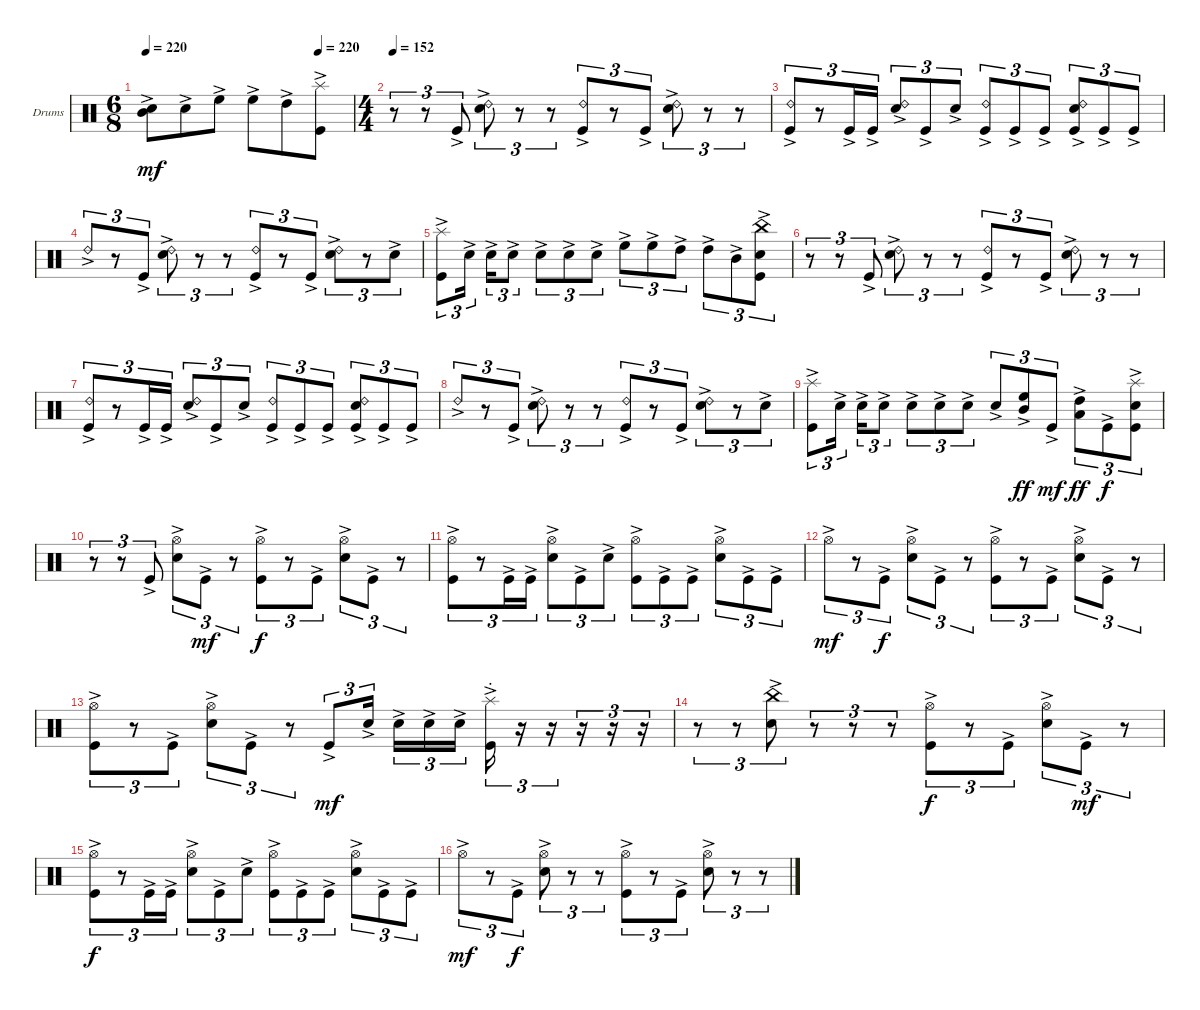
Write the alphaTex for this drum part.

\bracketExtendMode groupsimilarinstruments
\firstSystemTrackNameOrientation horizontal
\otherSystemsTrackNameOrientation horizontal
\track ("Drumkit" "Drums") {solo instrument percussion}
\staff {score}
\articulation defaults
\ts (6 8)
\tempo 220
\tempo (220 0.833333)
\clef neutral
\ks c
("Snare (hit) 2"{ac} "Mid Tom (hit)"{t}).8{dy mf} "Snare (hit) 2"{ac}.8 "High Floor Tom (hit)"{ac}.8 "High Floor Tom (hit)"{ac}.8 "High Tom (hit)"{ac}.8 ("Kick (hit)"{ac} "Splash (hit)"{ac}).8 |
\ts (4 4)
\tempo 152
r.8{tu (3 2)} r.8{tu (3 2)} "Kick (hit)"{ac}.8{tu (3 2)} ("Snare (hit) 2"{ac} "Ride (bell) 2"{ac}).8{tu (3 2)} r.8{tu (3 2)} r.8{tu (3 2)} ("Kick (hit)"{ac} "Ride (bell) 2"{ac}).8{tu (3 2)} r.8{tu (3 2)} "Kick (hit)"{ac}.8{tu (3 2)} ("Snare (hit) 2"{ac} "Ride (bell) 2"{ac}).8{tu (3 2)} r.8{tu (3 2)} r.8{tu (3 2)} |
("Kick (hit)"{ac} "Ride (bell) 2"{ac}).8{tu (3 2)} r.8{tu (3 2)} "Kick (hit)"{ac}.16{tu (3 2)} "Kick (hit)"{ac}.16{tu (3 2)} ("Snare (hit) 2"{ac} "Ride (bell) 2"{ac}).8{tu (3 2)} "Kick (hit)"{ac}.8{tu (3 2)} "Snare (hit) 2"{ac}.8{tu (3 2)} ("Kick (hit)"{ac} "Ride (bell) 2"{ac}).8{tu (3 2)} "Kick (hit)"{ac}.8{tu (3 2)} "Kick (hit)"{ac}.8{tu (3 2)} ("Kick (hit)"{ac} "Snare (hit) 2"{ac} "Ride (bell) 2"{ac}).8{tu (3 2)} "Kick (hit)"{ac}.8{tu (3 2)} "Kick (hit)"{ac}.8{tu (3 2)} |
"Ride (bell) 2"{ac}.8{tu (3 2)} r.8{tu (3 2)} "Kick (hit)"{ac}.8{tu (3 2)} ("Snare (hit) 2"{ac} "Ride (bell) 2"{ac}).8{tu (3 2)} r.8{tu (3 2)} r.8{tu (3 2)} ("Kick (hit)"{ac} "Ride (bell) 2"{ac}).8{tu (3 2)} r.8{tu (3 2)} "Kick (hit)"{ac}.8{tu (3 2)} ("Snare (hit) 2"{ac} "Ride (bell) 2"{ac}).8{tu (3 2)} r.8{tu (3 2)} "Snare (hit) 2"{ac}.8{tu (3 2)} |
("Kick (hit)"{ac} "Splash (hit)"{ac}).8{tu (3 2)} "Snare (hit) 2"{ac}.16{tu (3 2)} "Snare (hit) 2"{ac}.16{tu (3 2)} "Snare (hit) 2"{ac}.8{tu (3 2)} "Snare (hit) 2"{ac}.8{tu (3 2)} "Snare (hit) 2"{ac}.8{tu (3 2)} "Snare (hit) 2"{ac}.8{tu (3 2)} "High Floor Tom (hit)"{ac}.8{tu (3 2)} "High Floor Tom (hit)"{ac}.8{tu (3 2)} "High Tom (hit)"{ac}.8{tu (3 2)} "High Tom (hit)"{ac}.8{tu (3 2)} "Mid Tom (hit)"{ac}.8{tu (3 2)} ("Kick (hit)"{ac} "China (hit)"{ac} "Snare (hit) 2"{ac}).8{tu (3 2)} |
r.8{tu (3 2)} r.8{tu (3 2)} "Kick (hit)"{ac}.8{tu (3 2)} ("Snare (hit) 2"{ac} "Ride (bell) 2"{ac}).8{tu (3 2)} r.8{tu (3 2)} r.8{tu (3 2)} ("Kick (hit)"{ac} "Ride (bell) 2"{ac}).8{tu (3 2)} r.8{tu (3 2)} "Kick (hit)"{ac}.8{tu (3 2)} ("Snare (hit) 2"{ac} "Ride (bell) 2"{ac}).8{tu (3 2)} r.8{tu (3 2)} r.8{tu (3 2)} |
("Kick (hit)"{ac} "Ride (bell) 2"{ac}).8{tu (3 2)} r.8{tu (3 2)} "Kick (hit)"{ac}.16{tu (3 2)} "Kick (hit)"{ac}.16{tu (3 2)} ("Snare (hit) 2"{ac} "Ride (bell) 2"{ac}).8{tu (3 2)} "Kick (hit)"{ac}.8{tu (3 2)} "Snare (hit) 2"{ac}.8{tu (3 2)} ("Kick (hit)"{ac} "Ride (bell) 2"{ac}).8{tu (3 2)} "Kick (hit)"{ac}.8{tu (3 2)} "Kick (hit)"{ac}.8{tu (3 2)} ("Kick (hit)"{ac} "Snare (hit) 2"{ac} "Ride (bell) 2"{ac}).8{tu (3 2)} "Kick (hit)"{ac}.8{tu (3 2)} "Kick (hit)"{ac}.8{tu (3 2)} |
"Ride (bell) 2"{ac}.8{tu (3 2)} r.8{tu (3 2)} "Kick (hit)"{ac}.8{tu (3 2)} ("Snare (hit) 2"{ac} "Ride (bell) 2"{ac}).8{tu (3 2)} r.8{tu (3 2)} r.8{tu (3 2)} ("Kick (hit)"{ac} "Ride (bell) 2"{ac}).8{tu (3 2)} r.8{tu (3 2)} "Kick (hit)"{ac}.8{tu (3 2)} ("Snare (hit) 2"{ac} "Ride (bell) 2"{ac}).8{tu (3 2)} r.8{tu (3 2)} "Snare (hit) 2"{ac}.8{tu (3 2)} |
("Kick (hit)"{ac} "Splash (hit)"{ac}).8{tu (3 2)} "Snare (hit) 2"{ac}.16{tu (3 2)} "Snare (hit) 2"{ac}.16{tu (3 2)} "Snare (hit) 2"{ac}.8{tu (3 2)} "Snare (hit) 2"{ac}.8{tu (3 2)} "Snare (hit) 2"{ac}.8{tu (3 2)} "Snare (hit) 2"{ac}.8{tu (3 2)} "Snare (hit) 2"{ac}.8{tu (3 2)} ("Mid Tom (hit)"{ac} "High Floor Tom (hit)"{ac}).8{tu (3 2) dy ff} "Kick (hit)"{ac}.8{tu (3 2) dy mf} ("Low Tom (hit)"{ac} "High Tom (hit)"{ac}).8{tu (3 2) dy ff} "Kick (hit)"{ac}.8{tu (3 2) dy f} ("Kick (hit)"{ac} "Splash (hit)"{ac} "Snare (hit) 2"{ac}).8{tu (3 2)} |
r.8{tu (3 2)} r.8{tu (3 2)} "Kick (hit)"{ac}.8{tu (3 2)} ("Snare (hit) 2"{ac} "Hi-Hat (open)"{ac}).8{tu (3 2)} "Kick (hit)"{ac}.8{tu (3 2) dy mf} r.8{tu (3 2)} ("Kick (hit)"{ac} "Hi-Hat (open)"{ac}).8{tu (3 2) dy f} r.8{tu (3 2)} "Kick (hit)"{ac}.8{tu (3 2)} ("Snare (hit) 2"{ac} "Hi-Hat (open)"{ac}).8{tu (3 2)} "Kick (hit)"{ac}.8{tu (3 2)} r.8{tu (3 2)} |
("Kick (hit)"{ac} "Hi-Hat (open)"{ac}).8{tu (3 2)} r.8{tu (3 2)} "Kick (hit)"{ac}.16{tu (3 2)} "Kick (hit)"{ac}.16{tu (3 2)} ("Snare (hit) 2"{ac} "Hi-Hat (open)"{ac}).8{tu (3 2)} "Kick (hit)"{ac}.8{tu (3 2)} "Snare (hit) 2"{ac}.8{tu (3 2)} ("Kick (hit)"{ac} "Hi-Hat (open)"{ac}).8{tu (3 2)} "Kick (hit)"{ac}.8{tu (3 2)} "Kick (hit)"{ac}.8{tu (3 2)} ("Snare (hit) 2"{ac} "Hi-Hat (open)"{ac}).8{tu (3 2)} "Kick (hit)"{ac}.8{tu (3 2)} "Kick (hit)"{ac}.8{tu (3 2)} |
"Hi-Hat (open)"{ac}.8{tu (3 2) dy mf} r.8{tu (3 2)} "Kick (hit)"{ac}.8{tu (3 2) dy f} ("Snare (hit) 2"{ac} "Hi-Hat (open)"{ac}).8{tu (3 2)} "Kick (hit)"{ac}.8{tu (3 2)} r.8{tu (3 2)} ("Kick (hit)"{ac} "Hi-Hat (open)"{ac}).8{tu (3 2)} r.8{tu (3 2)} "Kick (hit)"{ac}.8{tu (3 2)} ("Snare (hit) 2"{ac} "Hi-Hat (open)"{ac}).8{tu (3 2)} "Kick (hit)"{ac}.8{tu (3 2)} r.8{tu (3 2)} |
("Kick (hit)"{ac} "Hi-Hat (open)"{ac}).8{tu (3 2)} r.8{tu (3 2)} "Kick (hit)"{ac}.8{tu (3 2)} ("Snare (hit) 2"{ac} "Hi-Hat (open)"{ac}).8{tu (3 2)} "Kick (hit)"{ac}.8{tu (3 2)} r.8{tu (3 2)} "Kick (hit)"{ac}.8{tu (3 2) dy mf} "Snare (hit) 2"{ac}.16{tu (3 2)} "Snare (hit) 2"{ac}.16{tu (3 2)} "Snare (hit) 2"{ac}.16{tu (3 2)} "Snare (hit) 2"{ac}.16{tu (3 2)} ("Kick (hit)"{ac} "Splash (hit)"{ac st}).16{tu (3 2)} r.16{tu (3 2)} r.16{tu (3 2)} r.16{tu (3 2)} r.16{tu (3 2)} r.16{tu (3 2)} |
r.8{tu (3 2)} r.8{tu (3 2)} ("Snare (hit) 2"{ac} "China (hit)"{ac}).8{tu (3 2)} r.8{tu (3 2)} r.8{tu (3 2)} r.8{tu (3 2)} ("Kick (hit)"{ac} "Hi-Hat (open)"{ac}).8{tu (3 2) dy f} r.8{tu (3 2)} "Kick (hit)"{ac}.8{tu (3 2)} ("Snare (hit) 2"{ac} "Hi-Hat (open)"{ac}).8{tu (3 2)} "Kick (hit)"{ac}.8{tu (3 2) dy mf} r.8{tu (3 2)} |
("Kick (hit)"{ac} "Hi-Hat (open)"{ac}).8{tu (3 2) dy f} r.8{tu (3 2)} "Kick (hit)"{ac}.16{tu (3 2)} "Kick (hit)"{ac}.16{tu (3 2)} ("Snare (hit) 2"{ac} "Hi-Hat (open)"{ac}).8{tu (3 2)} "Kick (hit)"{ac}.8{tu (3 2)} "Snare (hit) 2"{ac}.8{tu (3 2)} ("Kick (hit)"{ac} "Hi-Hat (open)"{ac}).8{tu (3 2)} "Kick (hit)"{ac}.8{tu (3 2)} "Kick (hit)"{ac}.8{tu (3 2)} ("Snare (hit) 2"{ac} "Hi-Hat (open)"{ac}).8{tu (3 2)} "Kick (hit)"{ac}.8{tu (3 2)} "Kick (hit)"{ac}.8{tu (3 2)} |
"Hi-Hat (open)"{ac}.8{tu (3 2) dy mf} r.8{tu (3 2)} "Kick (hit)"{ac}.8{tu (3 2) dy f} ("Snare (hit) 2"{ac} "Hi-Hat (open)"{ac}).8{tu (3 2)} r.8{tu (3 2)} r.8{tu (3 2)} ("Kick (hit)"{ac} "Hi-Hat (open)"{ac}).8{tu (3 2)} r.8{tu (3 2)} "Kick (hit)"{ac}.8{tu (3 2)} ("Snare (hit) 2"{ac} "Hi-Hat (open)"{ac}).8{tu (3 2)} r.8{tu (3 2)} r.8{tu (3 2)}
